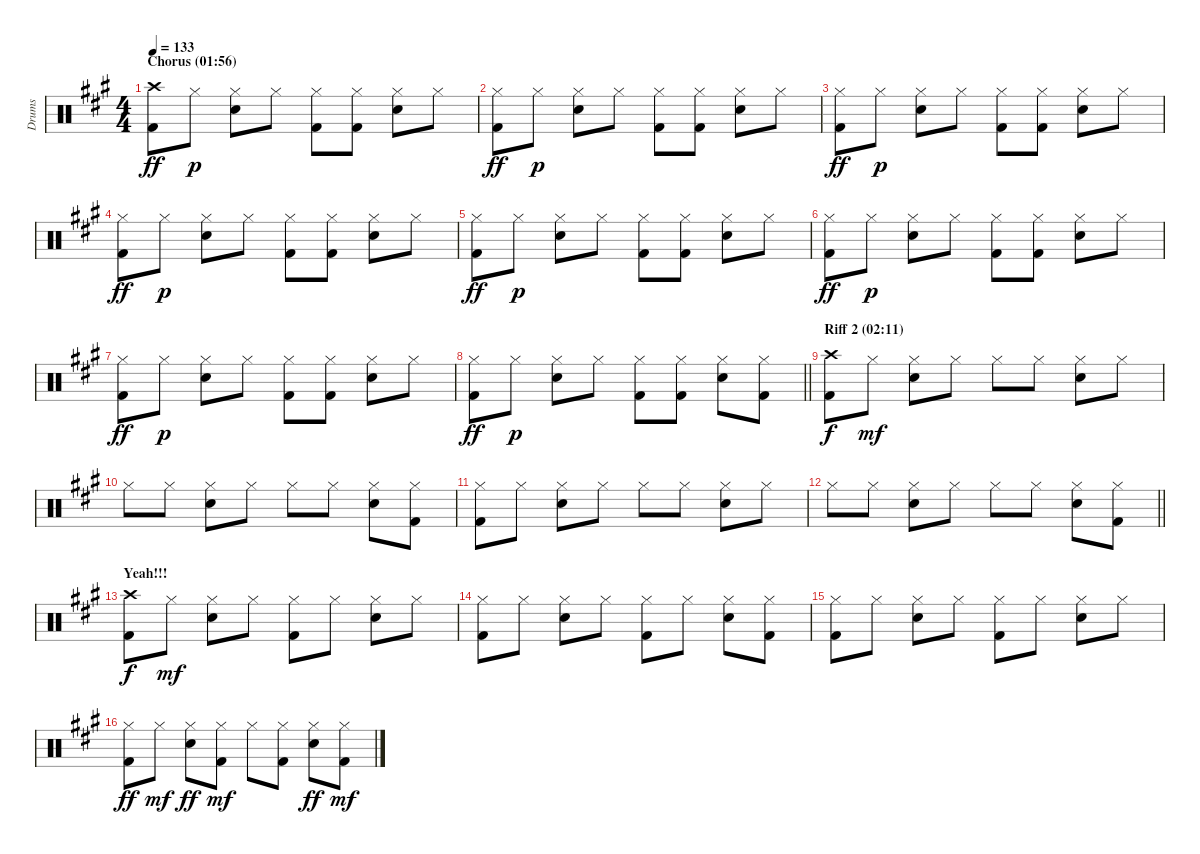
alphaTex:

\track ("Drums" "Drums") {instrument percussion}
\staff {score}
\articulation defaults
\ts (4 4)
\section ("" "Chorus (01:56)")
\tempo 133
\clef neutral
\ks a
("Crash high (hit)" "Kick (hit) 2").8{dy ff} "Hi-Hat (closed)".8{dy p} ("Hi-Hat (closed)" "Snare (hit) 2").8 "Hi-Hat (closed)".8 ("Hi-Hat (closed)" "Kick (hit) 2").8 ("Hi-Hat (closed)" "Kick (hit) 2").8 ("Hi-Hat (closed)" "Snare (hit) 2").8 "Hi-Hat (closed)".8 |
("Hi-Hat (closed)" "Kick (hit) 2").8{dy ff} "Hi-Hat (closed)".8{dy p} ("Hi-Hat (closed)" "Snare (hit) 2").8 "Hi-Hat (closed)".8 ("Hi-Hat (closed)" "Kick (hit) 2").8 ("Hi-Hat (closed)" "Kick (hit) 2").8 ("Hi-Hat (closed)" "Snare (hit) 2").8 "Hi-Hat (closed)".8 |
("Hi-Hat (closed)" "Kick (hit) 2").8{dy ff} "Hi-Hat (closed)".8{dy p} ("Hi-Hat (closed)" "Snare (hit) 2").8 "Hi-Hat (closed)".8 ("Hi-Hat (closed)" "Kick (hit) 2").8 ("Hi-Hat (closed)" "Kick (hit) 2").8 ("Hi-Hat (closed)" "Snare (hit) 2").8 "Hi-Hat (closed)".8 |
("Hi-Hat (closed)" "Kick (hit) 2").8{dy ff} "Hi-Hat (closed)".8{dy p} ("Hi-Hat (closed)" "Snare (hit) 2").8 "Hi-Hat (closed)".8 ("Hi-Hat (closed)" "Kick (hit) 2").8 ("Hi-Hat (closed)" "Kick (hit) 2").8 ("Hi-Hat (closed)" "Snare (hit) 2").8 "Hi-Hat (closed)".8 |
("Hi-Hat (closed)" "Kick (hit) 2").8{dy ff} "Hi-Hat (closed)".8{dy p} ("Hi-Hat (closed)" "Snare (hit) 2").8 "Hi-Hat (closed)".8 ("Hi-Hat (closed)" "Kick (hit) 2").8 ("Hi-Hat (closed)" "Kick (hit) 2").8 ("Hi-Hat (closed)" "Snare (hit) 2").8 "Hi-Hat (closed)".8 |
("Hi-Hat (closed)" "Kick (hit) 2").8{dy ff} "Hi-Hat (closed)".8{dy p} ("Hi-Hat (closed)" "Snare (hit) 2").8 "Hi-Hat (closed)".8 ("Hi-Hat (closed)" "Kick (hit) 2").8 ("Hi-Hat (closed)" "Kick (hit) 2").8 ("Hi-Hat (closed)" "Snare (hit) 2").8 "Hi-Hat (closed)".8 |
("Hi-Hat (closed)" "Kick (hit) 2").8{dy ff} "Hi-Hat (closed)".8{dy p} ("Hi-Hat (closed)" "Snare (hit) 2").8 "Hi-Hat (closed)".8 ("Hi-Hat (closed)" "Kick (hit) 2").8 ("Hi-Hat (closed)" "Kick (hit) 2").8 ("Hi-Hat (closed)" "Snare (hit) 2").8 "Hi-Hat (closed)".8 |
\barLineRight lightlight
("Hi-Hat (closed)" "Kick (hit) 2").8{dy ff} "Hi-Hat (closed)".8{dy p} ("Hi-Hat (closed)" "Snare (hit) 2").8 "Hi-Hat (closed)".8 ("Hi-Hat (closed)" "Kick (hit) 2").8 ("Hi-Hat (closed)" "Kick (hit) 2").8 ("Hi-Hat (closed)" "Snare (hit) 2").8 ("Hi-Hat (closed)" "Kick (hit) 2").8 |
\section ("" "Riff 2 (02:11)")
("Crash high (hit)" "Kick (hit) 2").8{dy f} "Hi-Hat (closed)".8{dy mf} ("Hi-Hat (closed)" "Snare (hit) 2").8 "Hi-Hat (closed)".8 "Hi-Hat (closed)".8 "Hi-Hat (closed)".8 ("Hi-Hat (closed)" "Snare (hit) 2").8 "Hi-Hat (closed)".8 |
"Hi-Hat (closed)".8 "Hi-Hat (closed)".8 ("Hi-Hat (closed)" "Snare (hit) 2").8 "Hi-Hat (closed)".8 "Hi-Hat (closed)".8 "Hi-Hat (closed)".8 ("Hi-Hat (closed)" "Snare (hit) 2").8 ("Hi-Hat (closed)" "Kick (hit) 2").8 |
("Hi-Hat (closed)" "Kick (hit) 2").8 "Hi-Hat (closed)".8 ("Hi-Hat (closed)" "Snare (hit) 2").8 "Hi-Hat (closed)".8 "Hi-Hat (closed)".8 "Hi-Hat (closed)".8 ("Hi-Hat (closed)" "Snare (hit) 2").8 "Hi-Hat (closed)".8 |
\barLineRight lightlight "Hi-Hat (closed)".8 "Hi-Hat (closed)".8
("Hi-Hat (closed)" "Snare (hit) 2").8 "Hi-Hat (closed)".8 "Hi-Hat (closed)".8 "Hi-Hat (closed)".8 ("Hi-Hat (closed)" "Snare (hit) 2").8 ("Hi-Hat (closed)" "Kick (hit) 2").8 |
\section ("" "Yeah!!!")
("Crash high (hit)" "Kick (hit) 2").8{dy f} "Hi-Hat (closed)".8{dy mf} ("Hi-Hat (closed)" "Snare (hit) 2").8 "Hi-Hat (closed)".8 ("Hi-Hat (closed)" "Kick (hit) 2").8 "Hi-Hat (closed)".8 ("Hi-Hat (closed)" "Snare (hit) 2").8 "Hi-Hat (closed)".8 |
("Hi-Hat (closed)" "Kick (hit) 2").8 "Hi-Hat (closed)".8 ("Hi-Hat (closed)" "Snare (hit) 2").8 "Hi-Hat (closed)".8 ("Hi-Hat (closed)" "Kick (hit) 2").8 "Hi-Hat (closed)".8 ("Hi-Hat (closed)" "Snare (hit) 2").8 ("Hi-Hat (closed)" "Kick (hit) 2").8 |
("Hi-Hat (closed)" "Kick (hit) 2").8 "Hi-Hat (closed)".8 ("Hi-Hat (closed)" "Snare (hit) 2").8 "Hi-Hat (closed)".8 ("Hi-Hat (closed)" "Kick (hit) 2").8 "Hi-Hat (closed)".8 ("Hi-Hat (closed)" "Snare (hit) 2").8 "Hi-Hat (closed)".8 |
("Hi-Hat (closed)" "Kick (hit) 2").8{dy ff} "Hi-Hat (closed)".8{dy mf} ("Hi-Hat (closed)" "Snare (hit) 2").8{dy ff} ("Hi-Hat (closed)" "Kick (hit) 2").8{dy mf} "Hi-Hat (closed)".8 ("Hi-Hat (closed)" "Kick (hit) 2").8 ("Hi-Hat (closed)" "Snare (hit) 2").8{dy ff} ("Hi-Hat (closed)" "Kick (hit) 2").8{dy mf}
